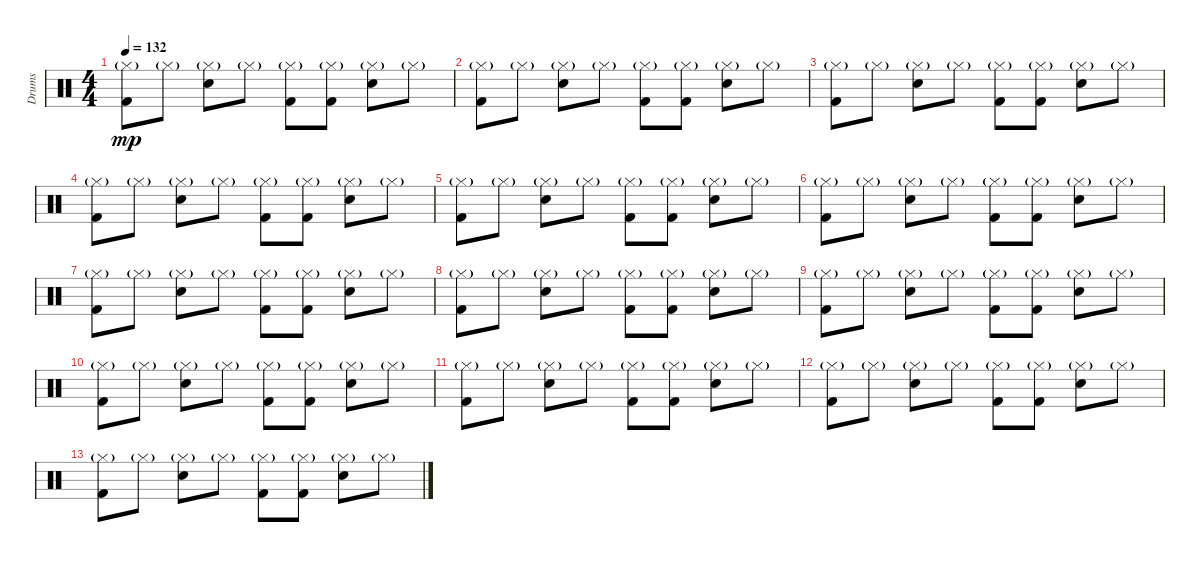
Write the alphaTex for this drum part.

\track ("Drums" "Drums") {instrument percussion}
\staff {score}
\articulation defaults
\ts (4 4)
\tempo 132
\clef neutral
\ks c
("Hi-Hat (closed)"{g} "Kick (hit) 2").8{dy mp} "Hi-Hat (closed)"{g}.8 ("Hi-Hat (closed)"{g} "Snare (hit) 2").8 "Hi-Hat (closed)"{g}.8 ("Hi-Hat (closed)"{g} "Kick (hit) 2").8 ("Hi-Hat (closed)"{g} "Kick (hit) 2").8 ("Hi-Hat (closed)"{g} "Snare (hit) 2").8 "Hi-Hat (closed)"{g}.8 |
("Hi-Hat (closed)"{g} "Kick (hit) 2").8 "Hi-Hat (closed)"{g}.8 ("Hi-Hat (closed)"{g} "Snare (hit) 2").8 "Hi-Hat (closed)"{g}.8 ("Hi-Hat (closed)"{g} "Kick (hit) 2").8 ("Hi-Hat (closed)"{g} "Kick (hit) 2").8 ("Hi-Hat (closed)"{g} "Snare (hit) 2").8 "Hi-Hat (closed)"{g}.8 |
("Hi-Hat (closed)"{g} "Kick (hit) 2").8 "Hi-Hat (closed)"{g}.8 ("Hi-Hat (closed)"{g} "Snare (hit) 2").8 "Hi-Hat (closed)"{g}.8 ("Hi-Hat (closed)"{g} "Kick (hit) 2").8 ("Hi-Hat (closed)"{g} "Kick (hit) 2").8 ("Hi-Hat (closed)"{g} "Snare (hit) 2").8 "Hi-Hat (closed)"{g}.8 |
("Hi-Hat (closed)"{g} "Kick (hit) 2").8 "Hi-Hat (closed)"{g}.8 ("Hi-Hat (closed)"{g} "Snare (hit) 2").8 "Hi-Hat (closed)"{g}.8 ("Hi-Hat (closed)"{g} "Kick (hit) 2").8 ("Hi-Hat (closed)"{g} "Kick (hit) 2").8 ("Hi-Hat (closed)"{g} "Snare (hit) 2").8 "Hi-Hat (closed)"{g}.8 |
("Hi-Hat (closed)"{g} "Kick (hit) 2").8 "Hi-Hat (closed)"{g}.8 ("Hi-Hat (closed)"{g} "Snare (hit) 2").8 "Hi-Hat (closed)"{g}.8 ("Hi-Hat (closed)"{g} "Kick (hit) 2").8 ("Hi-Hat (closed)"{g} "Kick (hit) 2").8 ("Hi-Hat (closed)"{g} "Snare (hit) 2").8 "Hi-Hat (closed)"{g}.8 |
("Hi-Hat (closed)"{g} "Kick (hit) 2").8 "Hi-Hat (closed)"{g}.8 ("Hi-Hat (closed)"{g} "Snare (hit) 2").8 "Hi-Hat (closed)"{g}.8 ("Hi-Hat (closed)"{g} "Kick (hit) 2").8 ("Hi-Hat (closed)"{g} "Kick (hit) 2").8 ("Hi-Hat (closed)"{g} "Snare (hit) 2").8 "Hi-Hat (closed)"{g}.8 |
("Hi-Hat (closed)"{g} "Kick (hit) 2").8 "Hi-Hat (closed)"{g}.8 ("Hi-Hat (closed)"{g} "Snare (hit) 2").8 "Hi-Hat (closed)"{g}.8 ("Hi-Hat (closed)"{g} "Kick (hit) 2").8 ("Hi-Hat (closed)"{g} "Kick (hit) 2").8 ("Hi-Hat (closed)"{g} "Snare (hit) 2").8 "Hi-Hat (closed)"{g}.8 |
("Hi-Hat (closed)"{g} "Kick (hit) 2").8 "Hi-Hat (closed)"{g}.8 ("Hi-Hat (closed)"{g} "Snare (hit) 2").8 "Hi-Hat (closed)"{g}.8 ("Hi-Hat (closed)"{g} "Kick (hit) 2").8 ("Hi-Hat (closed)"{g} "Kick (hit) 2").8 ("Hi-Hat (closed)"{g} "Snare (hit) 2").8 "Hi-Hat (closed)"{g}.8 |
("Hi-Hat (closed)"{g} "Kick (hit) 2").8 "Hi-Hat (closed)"{g}.8 ("Hi-Hat (closed)"{g} "Snare (hit) 2").8 "Hi-Hat (closed)"{g}.8 ("Hi-Hat (closed)"{g} "Kick (hit) 2").8 ("Hi-Hat (closed)"{g} "Kick (hit) 2").8 ("Hi-Hat (closed)"{g} "Snare (hit) 2").8 "Hi-Hat (closed)"{g}.8 |
("Hi-Hat (closed)"{g} "Kick (hit) 2").8 "Hi-Hat (closed)"{g}.8 ("Hi-Hat (closed)"{g} "Snare (hit) 2").8 "Hi-Hat (closed)"{g}.8 ("Hi-Hat (closed)"{g} "Kick (hit) 2").8 ("Hi-Hat (closed)"{g} "Kick (hit) 2").8 ("Hi-Hat (closed)"{g} "Snare (hit) 2").8 "Hi-Hat (closed)"{g}.8 |
("Hi-Hat (closed)"{g} "Kick (hit) 2").8 "Hi-Hat (closed)"{g}.8 ("Hi-Hat (closed)"{g} "Snare (hit) 2").8 "Hi-Hat (closed)"{g}.8 ("Hi-Hat (closed)"{g} "Kick (hit) 2").8 ("Hi-Hat (closed)"{g} "Kick (hit) 2").8 ("Hi-Hat (closed)"{g} "Snare (hit) 2").8 "Hi-Hat (closed)"{g}.8 |
("Hi-Hat (closed)"{g} "Kick (hit) 2").8 "Hi-Hat (closed)"{g}.8 ("Hi-Hat (closed)"{g} "Snare (hit) 2").8 "Hi-Hat (closed)"{g}.8 ("Hi-Hat (closed)"{g} "Kick (hit) 2").8 ("Hi-Hat (closed)"{g} "Kick (hit) 2").8 ("Hi-Hat (closed)"{g} "Snare (hit) 2").8 "Hi-Hat (closed)"{g}.8 |
("Hi-Hat (closed)"{g} "Kick (hit) 2").8 "Hi-Hat (closed)"{g}.8 ("Hi-Hat (closed)"{g} "Snare (hit) 2").8 "Hi-Hat (closed)"{g}.8 ("Hi-Hat (closed)"{g} "Kick (hit) 2").8 ("Hi-Hat (closed)"{g} "Kick (hit) 2").8 ("Hi-Hat (closed)"{g} "Snare (hit) 2").8 "Hi-Hat (closed)"{g}.8
